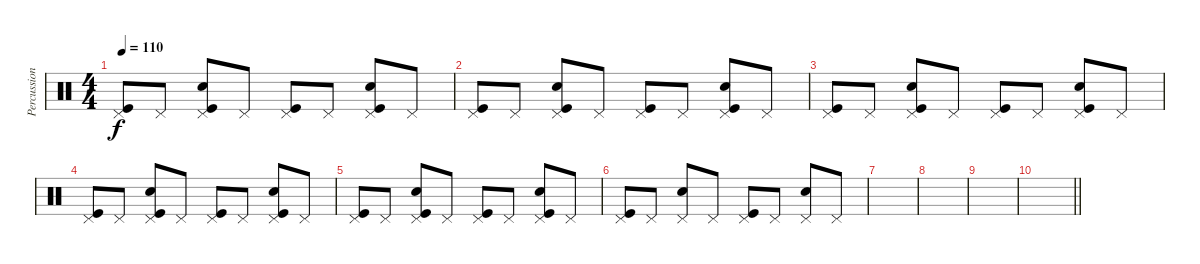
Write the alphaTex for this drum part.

\track ("Percussion" "Percussion") {instrument percussion}
\staff {score}
\articulation defaults
\ts (4 4)
\tempo 110
\clef neutral
\ks c
("Pedal Hi-Hat (hit)" "Kick (hit)").8{dy f} "Pedal Hi-Hat (hit)".8 ("Pedal Hi-Hat (hit)" "Snare (hit) 2" "Kick (hit)").8 "Pedal Hi-Hat (hit)".8 ("Pedal Hi-Hat (hit)" "Kick (hit)").8 "Pedal Hi-Hat (hit)".8 ("Pedal Hi-Hat (hit)" "Snare (hit) 2" "Kick (hit)").8 "Pedal Hi-Hat (hit)".8 |
("Pedal Hi-Hat (hit)" "Kick (hit)").8 "Pedal Hi-Hat (hit)".8 ("Pedal Hi-Hat (hit)" "Snare (hit) 2" "Kick (hit)").8 "Pedal Hi-Hat (hit)".8 ("Pedal Hi-Hat (hit)" "Kick (hit)").8 "Pedal Hi-Hat (hit)".8 ("Pedal Hi-Hat (hit)" "Snare (hit) 2" "Kick (hit)").8 "Pedal Hi-Hat (hit)".8 |
("Pedal Hi-Hat (hit)" "Kick (hit)").8{volume 0} "Pedal Hi-Hat (hit)".8 ("Pedal Hi-Hat (hit)" "Snare (hit) 2" "Kick (hit)").8 "Pedal Hi-Hat (hit)".8 ("Pedal Hi-Hat (hit)" "Kick (hit)").8 "Pedal Hi-Hat (hit)".8 ("Pedal Hi-Hat (hit)" "Snare (hit) 2" "Kick (hit)").8 "Pedal Hi-Hat (hit)".8 |
("Pedal Hi-Hat (hit)" "Kick (hit)").8 "Pedal Hi-Hat (hit)".8 ("Pedal Hi-Hat (hit)" "Snare (hit) 2" "Kick (hit)").8 "Pedal Hi-Hat (hit)".8 ("Pedal Hi-Hat (hit)" "Kick (hit)").8 "Pedal Hi-Hat (hit)".8 ("Pedal Hi-Hat (hit)" "Snare (hit) 2" "Kick (hit)").8 "Pedal Hi-Hat (hit)".8 |
("Pedal Hi-Hat (hit)" "Kick (hit)").8 "Pedal Hi-Hat (hit)".8 ("Pedal Hi-Hat (hit)" "Snare (hit) 2" "Kick (hit)").8 "Pedal Hi-Hat (hit)".8 ("Pedal Hi-Hat (hit)" "Kick (hit)").8 "Pedal Hi-Hat (hit)".8 ("Pedal Hi-Hat (hit)" "Snare (hit) 2" "Kick (hit)").8 "Pedal Hi-Hat (hit)".8 |
("Pedal Hi-Hat (hit)" "Kick (hit)").8 "Pedal Hi-Hat (hit)".8 ("Pedal Hi-Hat (hit)" "Snare (hit) 2").8 "Pedal Hi-Hat (hit)".8 ("Pedal Hi-Hat (hit)" "Kick (hit)").8 "Pedal Hi-Hat (hit)".8 ("Pedal Hi-Hat (hit)" "Snare (hit) 2").8 "Pedal Hi-Hat (hit)".8 |
|
|
|
\barLineRight lightlight
